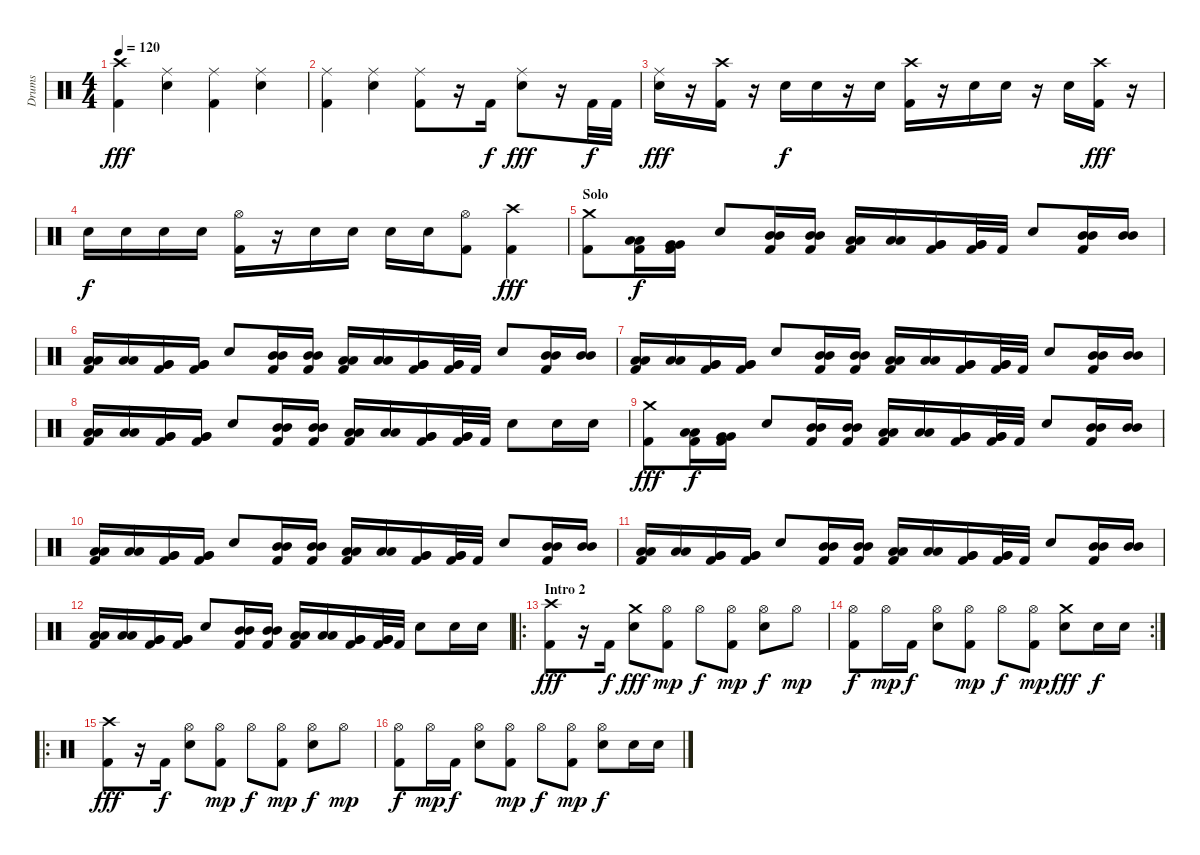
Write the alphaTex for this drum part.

\track ("Drums" "Drums") {instrument percussion}
\staff {score}
\articulation defaults
\ts (4 4)
\tempo 120
\clef neutral
\ks c
("Kick (hit) 2" "Crash high (hit)").4{dy fff} ("Electric Snare (hit)" "Ride (middle)").4 ("Kick (hit) 2" "Ride (middle)").4 ("Electric Snare (hit)" "Ride (middle)").4 |
("Kick (hit) 2" "Ride (middle)").4 ("Electric Snare (hit)" "Ride (middle)").4 ("Kick (hit) 2" "Ride (middle)").8 r.16 "Kick (hit) 2".16{dy f} ("Electric Snare (hit)" "Ride (middle)").8{dy fff} r.16 "Kick (hit) 2".32{dy f} "Kick (hit) 2".32 |
("Electric Snare (hit)" "Ride (middle)").16{dy fff} r.16 ("Kick (hit) 2" "Crash high (hit)").16 r.16 "Electric Snare (hit)".16{dy f} "Electric Snare (hit)".16 r.16 "Electric Snare (hit)".16 ("Kick (hit) 2" "Crash high (hit)").16 r.16 "Electric Snare (hit)".16 "Electric Snare (hit)".16 r.16 "Electric Snare (hit)".16 ("Kick (hit) 2" "Crash high (hit)").16{dy fff} r.16 |
"Electric Snare (hit)".16{dy f} "Electric Snare (hit)".16 "Electric Snare (hit)".16 "Electric Snare (hit)".16 ("Kick (hit) 2" "Hi-Hat (open)").16 r.16 "Electric Snare (hit)".16 "Electric Snare (hit)".16 "Electric Snare (hit)".16 "Electric Snare (hit)".16 ("Kick (hit) 2" "Hi-Hat (open)").8 ("Kick (hit) 2" "Crash high (hit)").4{dy fff} |
\section ("" "Solo")
("Kick (hit) 2" "Crash medium (hit)").8 ("Kick (hit) 2" "Low Tom (hit)" "Low Tom (hit)").16{dy f} ("Kick (hit) 2" "Very Low Tom (hit)" "Very Low Tom (hit)").16 "Electric Snare (hit)".8 ("Kick (hit) 2" "Mid Tom (hit)" "Mid Tom (hit)").16 ("Kick (hit) 2" "Mid Tom (hit)" "Mid Tom (hit)").16 ("Kick (hit) 2" "Low Tom (hit)" "Low Tom (hit)").16 ("Low Tom (hit)" "Low Tom (hit)").16 ("Kick (hit) 2" "Very Low Tom (hit)" "Very Low Tom (hit)").16 ("Kick (hit) 2" "Very Low Tom (hit)" "Very Low Tom (hit)").32 "Kick (hit) 2".32 "Electric Snare (hit)".8 ("Kick (hit) 2" "Mid Tom (hit)" "Mid Tom (hit)").16 ("Mid Tom (hit)" "Mid Tom (hit)").16 |
("Kick (hit) 2" "Low Tom (hit)" "Low Tom (hit)").16 ("Low Tom (hit)" "Low Tom (hit)").16 ("Kick (hit) 2" "Very Low Tom (hit)" "Very Low Tom (hit)").16 ("Kick (hit) 2" "Very Low Tom (hit)" "Very Low Tom (hit)").16 "Electric Snare (hit)".8 ("Kick (hit) 2" "Mid Tom (hit)" "Mid Tom (hit)").16 ("Kick (hit) 2" "Mid Tom (hit)" "Mid Tom (hit)").16 ("Kick (hit) 2" "Low Tom (hit)" "Low Tom (hit)").16 ("Low Tom (hit)" "Low Tom (hit)").16 ("Kick (hit) 2" "Very Low Tom (hit)" "Very Low Tom (hit)").16 ("Kick (hit) 2" "Very Low Tom (hit)" "Very Low Tom (hit)").32 "Kick (hit) 2".32 "Electric Snare (hit)".8 ("Kick (hit) 2" "Mid Tom (hit)" "Mid Tom (hit)").16 ("Mid Tom (hit)" "Mid Tom (hit)").16 |
("Kick (hit) 2" "Low Tom (hit)" "Low Tom (hit)").16 ("Low Tom (hit)" "Low Tom (hit)").16 ("Kick (hit) 2" "Very Low Tom (hit)" "Very Low Tom (hit)").16 ("Kick (hit) 2" "Very Low Tom (hit)" "Very Low Tom (hit)").16 "Electric Snare (hit)".8 ("Kick (hit) 2" "Mid Tom (hit)" "Mid Tom (hit)").16 ("Kick (hit) 2" "Mid Tom (hit)" "Mid Tom (hit)").16 ("Kick (hit) 2" "Low Tom (hit)" "Low Tom (hit)").16 ("Low Tom (hit)" "Low Tom (hit)").16 ("Kick (hit) 2" "Very Low Tom (hit)" "Very Low Tom (hit)").16 ("Kick (hit) 2" "Very Low Tom (hit)" "Very Low Tom (hit)").32 "Kick (hit) 2".32 "Electric Snare (hit)".8 ("Kick (hit) 2" "Mid Tom (hit)" "Mid Tom (hit)").16 ("Mid Tom (hit)" "Mid Tom (hit)").16 |
("Kick (hit) 2" "Low Tom (hit)" "Low Tom (hit)").16 ("Low Tom (hit)" "Low Tom (hit)").16 ("Kick (hit) 2" "Very Low Tom (hit)" "Very Low Tom (hit)").16 ("Kick (hit) 2" "Very Low Tom (hit)" "Very Low Tom (hit)").16 "Electric Snare (hit)".8 ("Kick (hit) 2" "Mid Tom (hit)" "Mid Tom (hit)").16 ("Kick (hit) 2" "Mid Tom (hit)" "Mid Tom (hit)").16 ("Kick (hit) 2" "Low Tom (hit)" "Low Tom (hit)").16 ("Low Tom (hit)" "Low Tom (hit)").16 ("Kick (hit) 2" "Very Low Tom (hit)" "Very Low Tom (hit)").16 ("Kick (hit) 2" "Very Low Tom (hit)" "Very Low Tom (hit)").32 "Kick (hit) 2".32 "Electric Snare (hit)".8 "Electric Snare (hit)".16 "Electric Snare (hit)".16 |
("Kick (hit) 2" "Crash medium (hit)").8{dy fff} ("Kick (hit) 2" "Low Tom (hit)" "Low Tom (hit)").16{dy f} ("Kick (hit) 2" "Very Low Tom (hit)" "Very Low Tom (hit)").16 "Electric Snare (hit)".8 ("Kick (hit) 2" "Mid Tom (hit)" "Mid Tom (hit)").16 ("Kick (hit) 2" "Mid Tom (hit)" "Mid Tom (hit)").16 ("Kick (hit) 2" "Low Tom (hit)" "Low Tom (hit)").16 ("Low Tom (hit)" "Low Tom (hit)").16 ("Kick (hit) 2" "Very Low Tom (hit)" "Very Low Tom (hit)").16 ("Kick (hit) 2" "Very Low Tom (hit)" "Very Low Tom (hit)").32 "Kick (hit) 2".32 "Electric Snare (hit)".8 ("Kick (hit) 2" "Mid Tom (hit)" "Mid Tom (hit)").16 ("Mid Tom (hit)" "Mid Tom (hit)").16 |
("Kick (hit) 2" "Low Tom (hit)" "Low Tom (hit)").16 ("Low Tom (hit)" "Low Tom (hit)").16 ("Kick (hit) 2" "Very Low Tom (hit)" "Very Low Tom (hit)").16 ("Kick (hit) 2" "Very Low Tom (hit)" "Very Low Tom (hit)").16 "Electric Snare (hit)".8 ("Kick (hit) 2" "Mid Tom (hit)" "Mid Tom (hit)").16 ("Kick (hit) 2" "Mid Tom (hit)" "Mid Tom (hit)").16 ("Kick (hit) 2" "Low Tom (hit)" "Low Tom (hit)").16 ("Low Tom (hit)" "Low Tom (hit)").16 ("Kick (hit) 2" "Very Low Tom (hit)" "Very Low Tom (hit)").16 ("Kick (hit) 2" "Very Low Tom (hit)" "Very Low Tom (hit)").32 "Kick (hit) 2".32 "Electric Snare (hit)".8 ("Kick (hit) 2" "Mid Tom (hit)" "Mid Tom (hit)").16 ("Mid Tom (hit)" "Mid Tom (hit)").16 |
("Kick (hit) 2" "Low Tom (hit)" "Low Tom (hit)").16 ("Low Tom (hit)" "Low Tom (hit)").16 ("Kick (hit) 2" "Very Low Tom (hit)" "Very Low Tom (hit)").16 ("Kick (hit) 2" "Very Low Tom (hit)" "Very Low Tom (hit)").16 "Electric Snare (hit)".8 ("Kick (hit) 2" "Mid Tom (hit)" "Mid Tom (hit)").16 ("Kick (hit) 2" "Mid Tom (hit)" "Mid Tom (hit)").16 ("Kick (hit) 2" "Low Tom (hit)" "Low Tom (hit)").16 ("Low Tom (hit)" "Low Tom (hit)").16 ("Kick (hit) 2" "Very Low Tom (hit)" "Very Low Tom (hit)").16 ("Kick (hit) 2" "Very Low Tom (hit)" "Very Low Tom (hit)").32 "Kick (hit) 2".32 "Electric Snare (hit)".8 ("Kick (hit) 2" "Mid Tom (hit)" "Mid Tom (hit)").16 ("Mid Tom (hit)" "Mid Tom (hit)").16 |
("Kick (hit) 2" "Low Tom (hit)" "Low Tom (hit)").16 ("Low Tom (hit)" "Low Tom (hit)").16 ("Kick (hit) 2" "Very Low Tom (hit)" "Very Low Tom (hit)").16 ("Kick (hit) 2" "Very Low Tom (hit)" "Very Low Tom (hit)").16 "Electric Snare (hit)".8 ("Kick (hit) 2" "Mid Tom (hit)" "Mid Tom (hit)").16 ("Kick (hit) 2" "Mid Tom (hit)" "Mid Tom (hit)").16 ("Kick (hit) 2" "Low Tom (hit)" "Low Tom (hit)").16 ("Low Tom (hit)" "Low Tom (hit)").16 ("Kick (hit) 2" "Very Low Tom (hit)" "Very Low Tom (hit)").16 ("Kick (hit) 2" "Very Low Tom (hit)" "Very Low Tom (hit)").32 "Kick (hit) 2".32 "Electric Snare (hit)".8 "Electric Snare (hit)".16 "Electric Snare (hit)".16 |
\ro
\section ("" "Intro 2")
("Kick (hit) 2" "Crash high (hit)").8{dy fff} r.16 "Kick (hit) 2".16{dy f} ("Electric Snare (hit)" "Crash medium (hit)").8{dy fff} ("Kick (hit) 2" "Hi-Hat (open)").8{dy mp} "Hi-Hat (open)".8{dy f} ("Kick (hit) 2" "Hi-Hat (open)").8{dy mp} ("Electric Snare (hit)" "Hi-Hat (open)").8{dy f} "Hi-Hat (open)".8{dy mp} |
\rc 2
("Kick (hit) 2" "Hi-Hat (open)").8{dy f} "Hi-Hat (open)".16{dy mp} "Kick (hit) 2".16{dy f} ("Electric Snare (hit)" "Hi-Hat (open)").8 ("Kick (hit) 2" "Hi-Hat (open)").8{dy mp} "Hi-Hat (open)".8{dy f} ("Kick (hit) 2" "Hi-Hat (open)").8{dy mp} ("Electric Snare (hit)" "Crash medium (hit)").8{dy fff} "Electric Snare (hit)".16{dy f} "Electric Snare (hit)".16 |
\ro
("Kick (hit) 2" "Crash high (hit)").8{dy fff} r.16 "Kick (hit) 2".16{dy f} ("Electric Snare (hit)" "Hi-Hat (open)").8 ("Kick (hit) 2" "Hi-Hat (open)").8{dy mp} "Hi-Hat (open)".8{dy f} ("Kick (hit) 2" "Hi-Hat (open)").8{dy mp} ("Electric Snare (hit)" "Hi-Hat (open)").8{dy f} "Hi-Hat (open)".8{dy mp} |
("Kick (hit) 2" "Hi-Hat (open)").8{dy f} "Hi-Hat (open)".16{dy mp} "Kick (hit) 2".16{dy f} ("Electric Snare (hit)" "Hi-Hat (open)").8 ("Kick (hit) 2" "Hi-Hat (open)").8{dy mp} "Hi-Hat (open)".8{dy f} ("Kick (hit) 2" "Hi-Hat (open)").8{dy mp} ("Electric Snare (hit)" "Hi-Hat (open)").8{dy f} "Electric Snare (hit)".16 "Electric Snare (hit)".16
